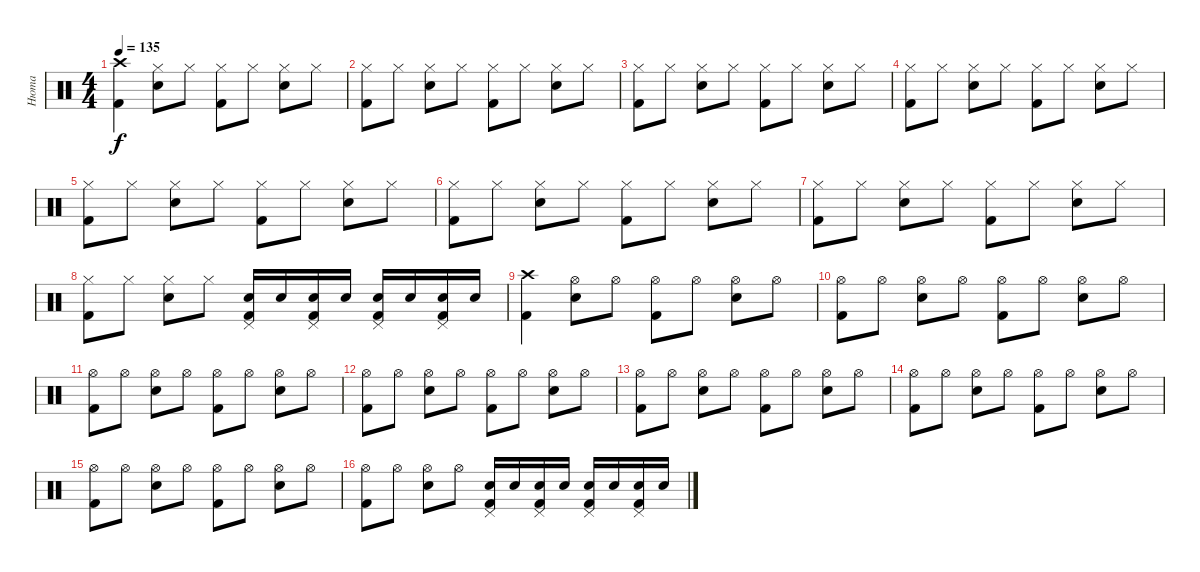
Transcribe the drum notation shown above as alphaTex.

\track ("Нюта" "Нюта") {instrument percussion}
\staff {score}
\articulation defaults
\ts (4 4)
\tempo 135
\clef neutral
\ks c
("Crash high (hit)" "Kick (hit) 2").4{dy f} ("Hi-Hat (closed)" "Electric Snare (hit)").8 "Hi-Hat (closed)".8 ("Hi-Hat (closed)" "Kick (hit) 2").8 "Hi-Hat (closed)".8 ("Hi-Hat (closed)" "Electric Snare (hit)").8 "Hi-Hat (closed)".8 |
("Hi-Hat (closed)" "Kick (hit) 2").8 "Hi-Hat (closed)".8 ("Hi-Hat (closed)" "Electric Snare (hit)").8 "Hi-Hat (closed)".8 ("Hi-Hat (closed)" "Kick (hit) 2").8 "Hi-Hat (closed)".8 ("Hi-Hat (closed)" "Electric Snare (hit)").8 "Hi-Hat (closed)".8 |
("Hi-Hat (closed)" "Kick (hit) 2").8 "Hi-Hat (closed)".8 ("Hi-Hat (closed)" "Electric Snare (hit)").8 "Hi-Hat (closed)".8 ("Hi-Hat (closed)" "Kick (hit) 2").8 "Hi-Hat (closed)".8 ("Hi-Hat (closed)" "Electric Snare (hit)").8 "Hi-Hat (closed)".8 |
("Hi-Hat (closed)" "Kick (hit) 2").8 "Hi-Hat (closed)".8 ("Hi-Hat (closed)" "Electric Snare (hit)").8 "Hi-Hat (closed)".8 ("Hi-Hat (closed)" "Kick (hit) 2").8 "Hi-Hat (closed)".8 ("Hi-Hat (closed)" "Electric Snare (hit)").8 "Hi-Hat (closed)".8 |
("Hi-Hat (closed)" "Kick (hit) 2").8 "Hi-Hat (closed)".8 ("Hi-Hat (closed)" "Electric Snare (hit)").8 "Hi-Hat (closed)".8 ("Hi-Hat (closed)" "Kick (hit) 2").8 "Hi-Hat (closed)".8 ("Hi-Hat (closed)" "Electric Snare (hit)").8 "Hi-Hat (closed)".8 |
("Hi-Hat (closed)" "Kick (hit) 2").8 "Hi-Hat (closed)".8 ("Hi-Hat (closed)" "Electric Snare (hit)").8 "Hi-Hat (closed)".8 ("Hi-Hat (closed)" "Kick (hit) 2").8 "Hi-Hat (closed)".8 ("Hi-Hat (closed)" "Electric Snare (hit)").8 "Hi-Hat (closed)".8 |
("Hi-Hat (closed)" "Kick (hit) 2").8 "Hi-Hat (closed)".8 ("Hi-Hat (closed)" "Electric Snare (hit)").8 "Hi-Hat (closed)".8 ("Hi-Hat (closed)" "Kick (hit) 2").8 "Hi-Hat (closed)".8 ("Hi-Hat (closed)" "Electric Snare (hit)").8 "Hi-Hat (closed)".8 |
("Hi-Hat (closed)" "Kick (hit) 2").8 "Hi-Hat (closed)".8 ("Hi-Hat (closed)" "Electric Snare (hit)").8 "Hi-Hat (closed)".8 ("Electric Snare (hit)" "Kick (hit) 2" "Pedal Hi-Hat (hit)").16 "Electric Snare (hit)".16 ("Electric Snare (hit)" "Kick (hit) 2" "Pedal Hi-Hat (hit)").16 "Electric Snare (hit)".16 ("Electric Snare (hit)" "Kick (hit) 2" "Pedal Hi-Hat (hit)").16 "Electric Snare (hit)".16 ("Electric Snare (hit)" "Kick (hit) 2" "Pedal Hi-Hat (hit)").16 "Electric Snare (hit)".16 |
("Crash high (hit)" "Kick (hit) 2").4 ("Hi-Hat (open)" "Electric Snare (hit)").8 "Hi-Hat (open)".8 ("Hi-Hat (open)" "Kick (hit) 2").8 "Hi-Hat (open)".8 ("Hi-Hat (open)" "Electric Snare (hit)").8 "Hi-Hat (open)".8 |
("Hi-Hat (open)" "Kick (hit) 2").8 "Hi-Hat (open)".8 ("Hi-Hat (open)" "Electric Snare (hit)").8 "Hi-Hat (open)".8 ("Hi-Hat (open)" "Kick (hit) 2").8 "Hi-Hat (open)".8 ("Hi-Hat (open)" "Electric Snare (hit)").8 "Hi-Hat (open)".8 |
("Hi-Hat (open)" "Kick (hit) 2").8 "Hi-Hat (open)".8 ("Hi-Hat (open)" "Electric Snare (hit)").8 "Hi-Hat (open)".8 ("Hi-Hat (open)" "Kick (hit) 2").8 "Hi-Hat (open)".8 ("Hi-Hat (open)" "Electric Snare (hit)").8 "Hi-Hat (open)".8 |
("Hi-Hat (open)" "Kick (hit) 2").8 "Hi-Hat (open)".8 ("Hi-Hat (open)" "Electric Snare (hit)").8 "Hi-Hat (open)".8 ("Hi-Hat (open)" "Kick (hit) 2").8 "Hi-Hat (open)".8 ("Hi-Hat (open)" "Electric Snare (hit)").8 "Hi-Hat (open)".8 |
("Hi-Hat (open)" "Kick (hit) 2").8 "Hi-Hat (open)".8 ("Hi-Hat (open)" "Electric Snare (hit)").8 "Hi-Hat (open)".8 ("Hi-Hat (open)" "Kick (hit) 2").8 "Hi-Hat (open)".8 ("Hi-Hat (open)" "Electric Snare (hit)").8 "Hi-Hat (open)".8 |
("Hi-Hat (open)" "Kick (hit) 2").8 "Hi-Hat (open)".8 ("Hi-Hat (open)" "Electric Snare (hit)").8 "Hi-Hat (open)".8 ("Hi-Hat (open)" "Kick (hit) 2").8 "Hi-Hat (open)".8 ("Hi-Hat (open)" "Electric Snare (hit)").8 "Hi-Hat (open)".8 |
("Hi-Hat (open)" "Kick (hit) 2").8 "Hi-Hat (open)".8 ("Hi-Hat (open)" "Electric Snare (hit)").8 "Hi-Hat (open)".8 ("Hi-Hat (open)" "Kick (hit) 2").8 "Hi-Hat (open)".8 ("Hi-Hat (open)" "Electric Snare (hit)").8 "Hi-Hat (open)".8 |
("Hi-Hat (open)" "Kick (hit) 2").8 "Hi-Hat (open)".8 ("Hi-Hat (open)" "Electric Snare (hit)").8 "Hi-Hat (open)".8 ("Electric Snare (hit)" "Kick (hit) 2" "Pedal Hi-Hat (hit)").16 "Electric Snare (hit)".16 ("Electric Snare (hit)" "Kick (hit) 2" "Pedal Hi-Hat (hit)").16 "Electric Snare (hit)".16 ("Electric Snare (hit)" "Kick (hit) 2" "Pedal Hi-Hat (hit)").16 "Electric Snare (hit)".16 ("Electric Snare (hit)" "Kick (hit) 2" "Pedal Hi-Hat (hit)").16 "Electric Snare (hit)".16
